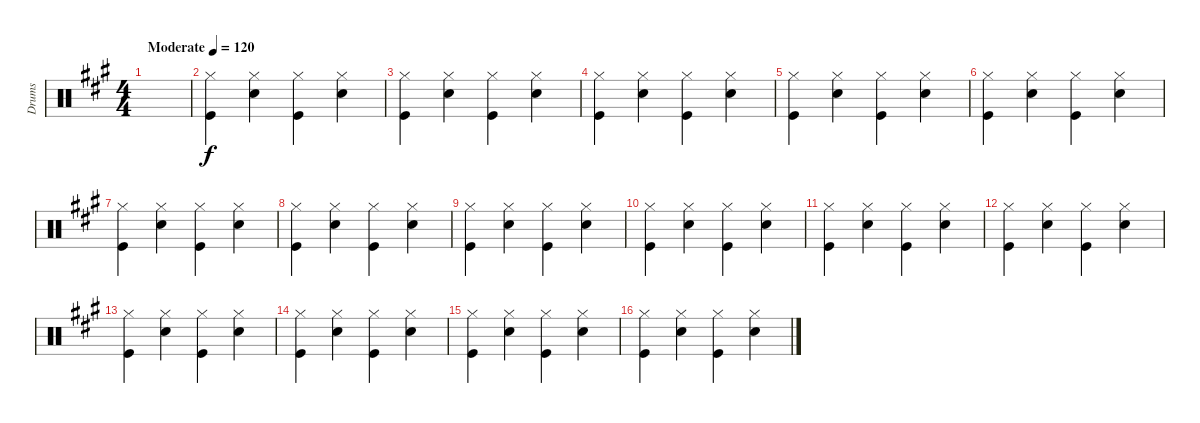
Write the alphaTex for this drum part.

\track ("Drums" "Drums") {instrument percussion}
\staff {score}
\articulation defaults
\ts (4 4)
\tempo (120 "Moderate")
\clef neutral
\ks a
|
("Kick (hit)" "Hi-Hat (closed)").4 ("Snare (hit) 2" "Hi-Hat (closed)").4 ("Kick (hit)" "Hi-Hat (closed)").4 ("Snare (hit) 2" "Hi-Hat (closed)").4 |
("Kick (hit)" "Hi-Hat (closed)").4 ("Snare (hit) 2" "Hi-Hat (closed)").4 ("Kick (hit)" "Hi-Hat (closed)").4 ("Snare (hit) 2" "Hi-Hat (closed)").4 |
("Kick (hit)" "Hi-Hat (closed)").4 ("Snare (hit) 2" "Hi-Hat (closed)").4 ("Kick (hit)" "Hi-Hat (closed)").4 ("Snare (hit) 2" "Hi-Hat (closed)").4 |
("Kick (hit)" "Hi-Hat (closed)").4 ("Snare (hit) 2" "Hi-Hat (closed)").4 ("Kick (hit)" "Hi-Hat (closed)").4 ("Snare (hit) 2" "Hi-Hat (closed)").4 |
("Kick (hit)" "Hi-Hat (closed)").4 ("Snare (hit) 2" "Hi-Hat (closed)").4 ("Kick (hit)" "Hi-Hat (closed)").4 ("Snare (hit) 2" "Hi-Hat (closed)").4 |
("Kick (hit)" "Hi-Hat (closed)").4 ("Snare (hit) 2" "Hi-Hat (closed)").4 ("Kick (hit)" "Hi-Hat (closed)").4 ("Snare (hit) 2" "Hi-Hat (closed)").4 |
("Kick (hit)" "Hi-Hat (closed)").4 ("Snare (hit) 2" "Hi-Hat (closed)").4 ("Kick (hit)" "Hi-Hat (closed)").4 ("Snare (hit) 2" "Hi-Hat (closed)").4 |
("Kick (hit)" "Hi-Hat (closed)").4 ("Snare (hit) 2" "Hi-Hat (closed)").4 ("Kick (hit)" "Hi-Hat (closed)").4 ("Snare (hit) 2" "Hi-Hat (closed)").4 |
("Kick (hit)" "Hi-Hat (closed)").4 ("Snare (hit) 2" "Hi-Hat (closed)").4 ("Kick (hit)" "Hi-Hat (closed)").4 ("Snare (hit) 2" "Hi-Hat (closed)").4 |
("Kick (hit)" "Hi-Hat (closed)").4 ("Snare (hit) 2" "Hi-Hat (closed)").4 ("Kick (hit)" "Hi-Hat (closed)").4 ("Snare (hit) 2" "Hi-Hat (closed)").4 |
("Kick (hit)" "Hi-Hat (closed)").4 ("Snare (hit) 2" "Hi-Hat (closed)").4 ("Kick (hit)" "Hi-Hat (closed)").4 ("Snare (hit) 2" "Hi-Hat (closed)").4 |
("Kick (hit)" "Hi-Hat (closed)").4 ("Snare (hit) 2" "Hi-Hat (closed)").4 ("Kick (hit)" "Hi-Hat (closed)").4 ("Snare (hit) 2" "Hi-Hat (closed)").4 |
("Kick (hit)" "Hi-Hat (closed)").4 ("Snare (hit) 2" "Hi-Hat (closed)").4 ("Kick (hit)" "Hi-Hat (closed)").4 ("Snare (hit) 2" "Hi-Hat (closed)").4 |
("Kick (hit)" "Hi-Hat (closed)").4 ("Snare (hit) 2" "Hi-Hat (closed)").4 ("Kick (hit)" "Hi-Hat (closed)").4 ("Snare (hit) 2" "Hi-Hat (closed)").4 |
("Kick (hit)" "Hi-Hat (closed)").4 ("Snare (hit) 2" "Hi-Hat (closed)").4 ("Kick (hit)" "Hi-Hat (closed)").4 ("Snare (hit) 2" "Hi-Hat (closed)").4
